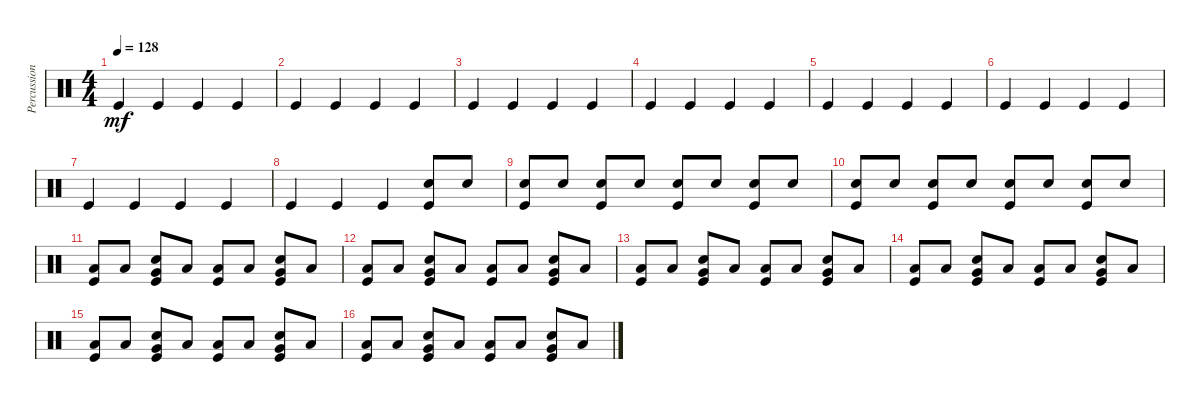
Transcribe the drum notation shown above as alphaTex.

\track ("Percussions" "Percussion") {instrument percussion}
\staff {score}
\articulation defaults
\ts (4 4)
\tempo 128
\clef neutral
\ks c "Kick (hit)".4{dy mf} "Kick (hit)".4 "Kick (hit)".4 "Kick (hit)".4
|
"Kick (hit)".4 "Kick (hit)".4 "Kick (hit)".4 "Kick (hit)".4 |
"Kick (hit)".4 "Kick (hit)".4 "Kick (hit)".4 "Kick (hit)".4 |
"Kick (hit)".4 "Kick (hit)".4 "Kick (hit)".4 "Kick (hit)".4 |
"Kick (hit)".4 "Kick (hit)".4 "Kick (hit)".4 "Kick (hit)".4 |
"Kick (hit)".4 "Kick (hit)".4 "Kick (hit)".4 "Kick (hit)".4 |
"Kick (hit)".4 "Kick (hit)".4 "Kick (hit)".4 "Kick (hit)".4 |
"Kick (hit)".4 "Kick (hit)".4 "Kick (hit)".4 ("Snare (hit) 2" "Kick (hit)").8 "Snare (hit) 2".8 |
("Snare (hit) 2" "Kick (hit)").8 "Snare (hit) 2".8 ("Snare (hit) 2" "Kick (hit)").8 "Snare (hit) 2".8 ("Snare (hit) 2" "Kick (hit)").8 "Snare (hit) 2".8 ("Snare (hit) 2" "Kick (hit)").8 "Snare (hit) 2".8 |
("Snare (hit) 2" "Kick (hit)").8 "Snare (hit) 2".8 ("Snare (hit) 2" "Kick (hit)").8 "Snare (hit) 2".8 ("Snare (hit) 2" "Kick (hit)").8 "Snare (hit) 2".8 ("Snare (hit) 2" "Kick (hit)").8 "Snare (hit) 2".8 |
("Low Floor Tom (hit)" "Kick (hit)").8 "Low Floor Tom (hit)".8 ("Very Low Tom (hit)" "Snare (hit) 2" "Kick (hit)").8 "Low Floor Tom (hit)".8 ("Low Floor Tom (hit)" "Kick (hit)").8 "Low Floor Tom (hit)".8 ("Very Low Tom (hit)" "Snare (hit) 2" "Kick (hit)").8 "Low Floor Tom (hit)".8 |
("Low Floor Tom (hit)" "Kick (hit)").8 "Low Floor Tom (hit)".8 ("Very Low Tom (hit)" "Snare (hit) 2" "Kick (hit)").8 "Low Floor Tom (hit)".8 ("Low Floor Tom (hit)" "Kick (hit)").8 "Low Floor Tom (hit)".8 ("Very Low Tom (hit)" "Snare (hit) 2" "Kick (hit)").8 "Low Floor Tom (hit)".8 |
("Low Floor Tom (hit)" "Kick (hit)").8 "Low Floor Tom (hit)".8 ("Very Low Tom (hit)" "Snare (hit) 2" "Kick (hit)").8 "Low Floor Tom (hit)".8 ("Low Floor Tom (hit)" "Kick (hit)").8 "Low Floor Tom (hit)".8 ("Very Low Tom (hit)" "Snare (hit) 2" "Kick (hit)").8 "Low Floor Tom (hit)".8 |
("Low Floor Tom (hit)" "Kick (hit)").8 "Low Floor Tom (hit)".8 ("Very Low Tom (hit)" "Snare (hit) 2" "Kick (hit)").8 "Low Floor Tom (hit)".8 ("Low Floor Tom (hit)" "Kick (hit)").8 "Low Floor Tom (hit)".8 ("Very Low Tom (hit)" "Snare (hit) 2" "Kick (hit)").8 "Low Floor Tom (hit)".8 |
("Low Floor Tom (hit)" "Kick (hit)").8 "Low Floor Tom (hit)".8 ("Very Low Tom (hit)" "Snare (hit) 2" "Kick (hit)").8 "Low Floor Tom (hit)".8 ("Low Floor Tom (hit)" "Kick (hit)").8 "Low Floor Tom (hit)".8 ("Very Low Tom (hit)" "Snare (hit) 2" "Kick (hit)").8 "Low Floor Tom (hit)".8 |
("Low Floor Tom (hit)" "Kick (hit)").8 "Low Floor Tom (hit)".8 ("Very Low Tom (hit)" "Snare (hit) 2" "Kick (hit)").8 "Low Floor Tom (hit)".8 ("Low Floor Tom (hit)" "Kick (hit)").8 "Low Floor Tom (hit)".8 ("Very Low Tom (hit)" "Snare (hit) 2" "Kick (hit)").8 "Low Floor Tom (hit)".8
